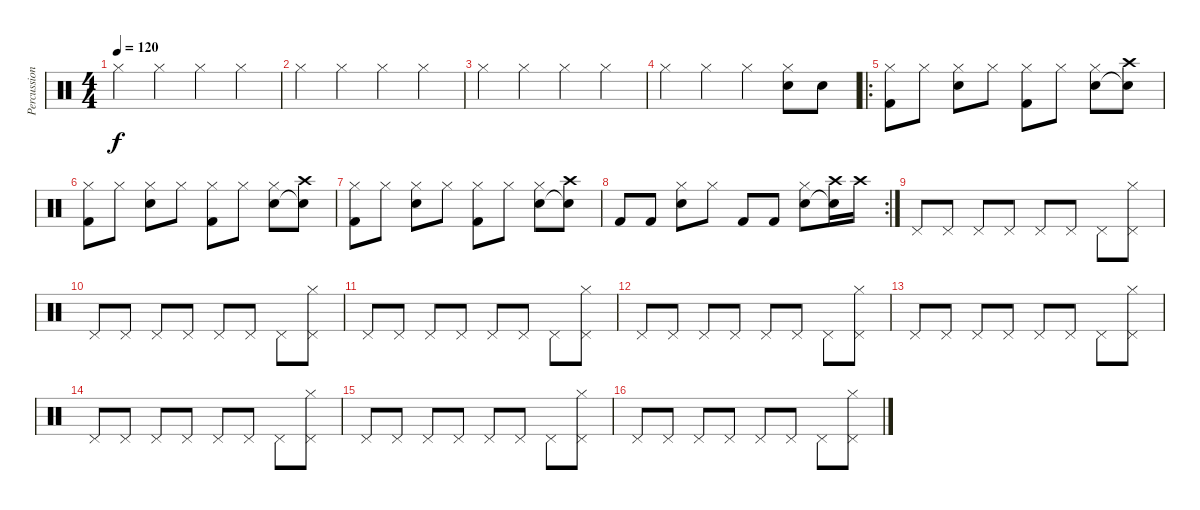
\track ("Percussion" "Percussion") {instrument percussion}
\staff {score}
\articulation defaults
\ts (4 4)
\tempo 120
\clef neutral
\ks c "Hi-Hat (closed)".4{dy f} "Hi-Hat (closed)".4 "Hi-Hat (closed)".4 "Hi-Hat (closed)".4
|
"Hi-Hat (closed)".4 "Hi-Hat (closed)".4 "Hi-Hat (closed)".4 "Hi-Hat (closed)".4 |
"Hi-Hat (closed)".4 "Hi-Hat (closed)".4 "Hi-Hat (closed)".4 "Hi-Hat (closed)".4 |
"Hi-Hat (closed)".4 "Hi-Hat (closed)".4 "Hi-Hat (closed)".4 ("Hi-Hat (closed)" "Electric Snare (hit)").8 "Electric Snare (hit)".8 |
\ro
("Hi-Hat (closed)" "Kick (hit) 2").8 "Hi-Hat (closed)".8 ("Hi-Hat (closed)" "Electric Snare (hit)").8 "Hi-Hat (closed)".8 ("Hi-Hat (closed)" "Kick (hit) 2").8 "Hi-Hat (closed)".8 ("Hi-Hat (closed)" "Electric Snare (hit)").8 ("Crash high (hit)" "Electric Snare (hit)"{t}).8 |
("Hi-Hat (closed)" "Kick (hit) 2").8 "Hi-Hat (closed)".8 ("Hi-Hat (closed)" "Electric Snare (hit)").8 "Hi-Hat (closed)".8 ("Hi-Hat (closed)" "Kick (hit) 2").8 "Hi-Hat (closed)".8 ("Hi-Hat (closed)" "Electric Snare (hit)").8 ("Crash high (hit)" "Electric Snare (hit)"{t}).8 |
("Hi-Hat (closed)" "Kick (hit) 2").8 "Hi-Hat (closed)".8 ("Hi-Hat (closed)" "Electric Snare (hit)").8 "Hi-Hat (closed)".8 ("Hi-Hat (closed)" "Kick (hit) 2").8 "Hi-Hat (closed)".8 ("Hi-Hat (closed)" "Electric Snare (hit)").8 ("Crash high (hit)" "Electric Snare (hit)"{t}).8 |
\rc 2 "Kick (hit) 2".8 "Kick (hit) 2".8
("Hi-Hat (closed)" "Electric Snare (hit)").8 "Hi-Hat (closed)".8 "Kick (hit) 2".8 "Kick (hit) 2".8 ("Hi-Hat (closed)" "Electric Snare (hit)").8 ("Crash high (hit)" "Electric Snare (hit)"{t}).16 "Crash high (hit)".16 |
"Pedal Hi-Hat (hit)".8 "Pedal Hi-Hat (hit)".8 "Pedal Hi-Hat (hit)".8 "Pedal Hi-Hat (hit)".8 "Pedal Hi-Hat (hit)".8 "Pedal Hi-Hat (hit)".8 "Pedal Hi-Hat (hit)".8 ("Hi-Hat (closed)" "Pedal Hi-Hat (hit)").8 |
"Pedal Hi-Hat (hit)".8 "Pedal Hi-Hat (hit)".8 "Pedal Hi-Hat (hit)".8 "Pedal Hi-Hat (hit)".8 "Pedal Hi-Hat (hit)".8 "Pedal Hi-Hat (hit)".8 "Pedal Hi-Hat (hit)".8 ("Hi-Hat (closed)" "Pedal Hi-Hat (hit)").8 |
"Pedal Hi-Hat (hit)".8 "Pedal Hi-Hat (hit)".8 "Pedal Hi-Hat (hit)".8 "Pedal Hi-Hat (hit)".8 "Pedal Hi-Hat (hit)".8 "Pedal Hi-Hat (hit)".8 "Pedal Hi-Hat (hit)".8 ("Hi-Hat (closed)" "Pedal Hi-Hat (hit)").8 |
"Pedal Hi-Hat (hit)".8 "Pedal Hi-Hat (hit)".8 "Pedal Hi-Hat (hit)".8 "Pedal Hi-Hat (hit)".8 "Pedal Hi-Hat (hit)".8 "Pedal Hi-Hat (hit)".8 "Pedal Hi-Hat (hit)".8 ("Hi-Hat (closed)" "Pedal Hi-Hat (hit)").8 |
"Pedal Hi-Hat (hit)".8 "Pedal Hi-Hat (hit)".8 "Pedal Hi-Hat (hit)".8 "Pedal Hi-Hat (hit)".8 "Pedal Hi-Hat (hit)".8 "Pedal Hi-Hat (hit)".8 "Pedal Hi-Hat (hit)".8 ("Hi-Hat (closed)" "Pedal Hi-Hat (hit)").8 |
"Pedal Hi-Hat (hit)".8 "Pedal Hi-Hat (hit)".8 "Pedal Hi-Hat (hit)".8 "Pedal Hi-Hat (hit)".8 "Pedal Hi-Hat (hit)".8 "Pedal Hi-Hat (hit)".8 "Pedal Hi-Hat (hit)".8 ("Hi-Hat (closed)" "Pedal Hi-Hat (hit)").8 |
"Pedal Hi-Hat (hit)".8 "Pedal Hi-Hat (hit)".8 "Pedal Hi-Hat (hit)".8 "Pedal Hi-Hat (hit)".8 "Pedal Hi-Hat (hit)".8 "Pedal Hi-Hat (hit)".8 "Pedal Hi-Hat (hit)".8 ("Hi-Hat (closed)" "Pedal Hi-Hat (hit)").8 |
"Pedal Hi-Hat (hit)".8 "Pedal Hi-Hat (hit)".8 "Pedal Hi-Hat (hit)".8 "Pedal Hi-Hat (hit)".8 "Pedal Hi-Hat (hit)".8 "Pedal Hi-Hat (hit)".8 "Pedal Hi-Hat (hit)".8 ("Hi-Hat (closed)" "Pedal Hi-Hat (hit)").8
